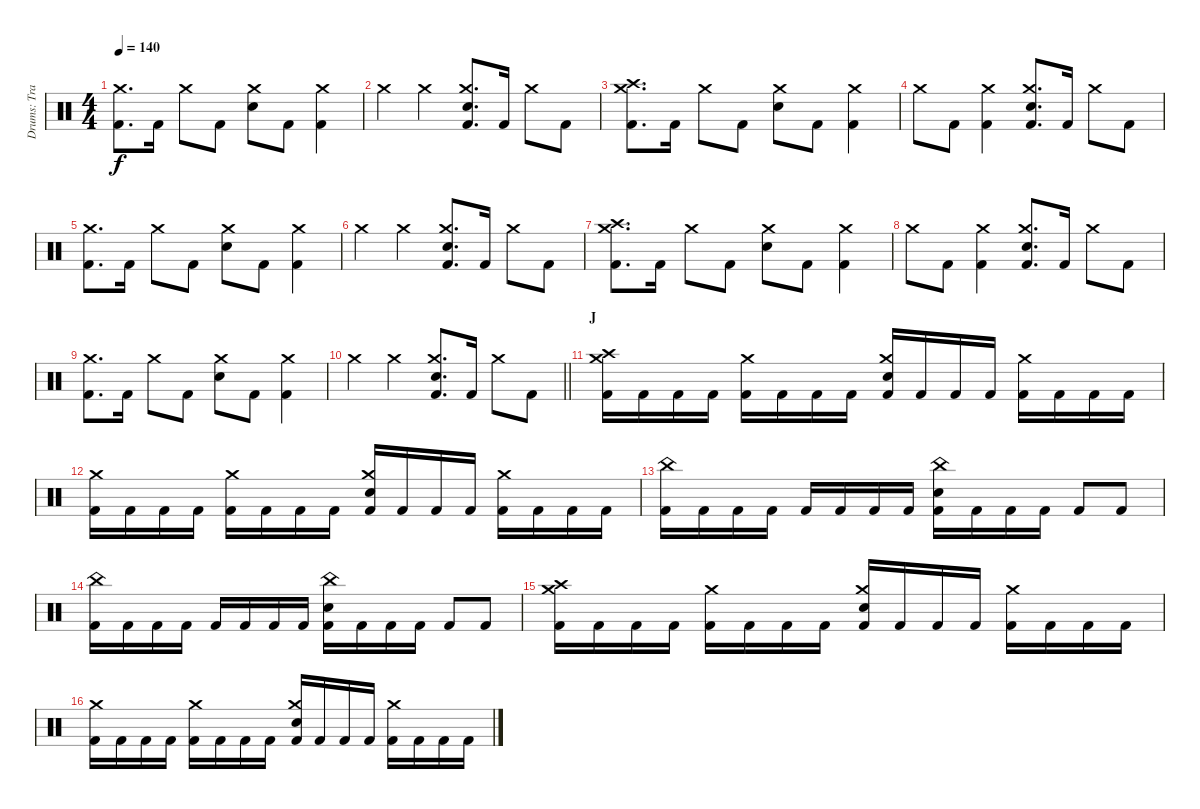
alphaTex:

\track ("Drums: Travis Clarke" "Drums: Tra") {instrument percussion}
\staff {score}
\articulation defaults
\ts (4 4)
\tempo 140
\clef neutral
\ks c
("Kick (hit) 2" "Crash medium (hit)").8{d dy f} "Kick (hit) 2".16 "Crash medium (hit)".8 "Kick (hit) 2".8 ("Snare (hit) 2" "Crash medium (hit)").8 "Kick (hit) 2".8 ("Kick (hit) 2" "Crash medium (hit)").4 |
"Crash medium (hit)".4 "Crash medium (hit)".4 ("Kick (hit) 2" "Snare (hit) 2" "Crash medium (hit)").8{d} "Kick (hit) 2".16 "Crash medium (hit)".8 "Kick (hit) 2".8 |
("Kick (hit) 2" "Crash high (hit)" "Crash medium (hit)").8{d} "Kick (hit) 2".16 "Crash medium (hit)".8 "Kick (hit) 2".8 ("Snare (hit) 2" "Crash medium (hit)").8 "Kick (hit) 2".8 ("Kick (hit) 2" "Crash medium (hit)").4 |
"Crash medium (hit)".8 "Kick (hit) 2".8 ("Kick (hit) 2" "Crash medium (hit)").4 ("Kick (hit) 2" "Snare (hit) 2" "Crash medium (hit)").8{d} "Kick (hit) 2".16 "Crash medium (hit)".8 "Kick (hit) 2".8 |
("Kick (hit) 2" "Crash medium (hit)").8{d} "Kick (hit) 2".16 "Crash medium (hit)".8 "Kick (hit) 2".8 ("Snare (hit) 2" "Crash medium (hit)").8 "Kick (hit) 2".8 ("Kick (hit) 2" "Crash medium (hit)").4 |
"Crash medium (hit)".4 "Crash medium (hit)".4 ("Kick (hit) 2" "Snare (hit) 2" "Crash medium (hit)").8{d} "Kick (hit) 2".16 "Crash medium (hit)".8 "Kick (hit) 2".8 |
("Kick (hit) 2" "Crash high (hit)" "Crash medium (hit)").8{d} "Kick (hit) 2".16 "Crash medium (hit)".8 "Kick (hit) 2".8 ("Snare (hit) 2" "Crash medium (hit)").8 "Kick (hit) 2".8 ("Kick (hit) 2" "Crash medium (hit)").4 |
"Crash medium (hit)".8 "Kick (hit) 2".8 ("Kick (hit) 2" "Crash medium (hit)").4 ("Kick (hit) 2" "Snare (hit) 2" "Crash medium (hit)").8{d} "Kick (hit) 2".16 "Crash medium (hit)".8 "Kick (hit) 2".8 |
("Kick (hit) 2" "Crash medium (hit)").8{d} "Kick (hit) 2".16 "Crash medium (hit)".8 "Kick (hit) 2".8 ("Snare (hit) 2" "Crash medium (hit)").8 "Kick (hit) 2".8 ("Kick (hit) 2" "Crash medium (hit)").4 |
\barLineRight lightlight "Crash medium (hit)".4 "Crash medium (hit)".4
("Kick (hit) 2" "Snare (hit) 2" "Crash medium (hit)").8{d} "Kick (hit) 2".16 "Crash medium (hit)".8 "Kick (hit) 2".8 |
\section ("" "J")
("Kick (hit) 2" "Crash high (hit)" "Crash medium (hit)").16 "Kick (hit) 2".16 "Kick (hit) 2".16 "Kick (hit) 2".16 ("Kick (hit) 2" "Crash medium (hit)").16 "Kick (hit) 2".16 "Kick (hit) 2".16 "Kick (hit) 2".16 ("Kick (hit) 2" "Snare (hit) 2" "Crash medium (hit)").16 "Kick (hit) 2".16 "Kick (hit) 2".16 "Kick (hit) 2".16 ("Kick (hit) 2" "Crash medium (hit)").16 "Kick (hit) 2".16 "Kick (hit) 2".16 "Kick (hit) 2".16 |
("Kick (hit) 2" "Crash medium (hit)").16 "Kick (hit) 2".16 "Kick (hit) 2".16 "Kick (hit) 2".16 ("Kick (hit) 2" "Crash medium (hit)").16 "Kick (hit) 2".16 "Kick (hit) 2".16 "Kick (hit) 2".16 ("Kick (hit) 2" "Snare (hit) 2" "Crash medium (hit)").16 "Kick (hit) 2".16 "Kick (hit) 2".16 "Kick (hit) 2".16 ("Kick (hit) 2" "Crash medium (hit)").16 "Kick (hit) 2".16 "Kick (hit) 2".16 "Kick (hit) 2".16 |
("Kick (hit) 2" "China (hit)").16 "Kick (hit) 2".16 "Kick (hit) 2".16 "Kick (hit) 2".16 "Kick (hit) 2".16 "Kick (hit) 2".16 "Kick (hit) 2".16 "Kick (hit) 2".16 ("Kick (hit) 2" "Snare (hit) 2" "China (hit)").16 "Kick (hit) 2".16 "Kick (hit) 2".16 "Kick (hit) 2".16 "Kick (hit) 2".8 "Kick (hit) 2".8 |
("Kick (hit) 2" "China (hit)").16 "Kick (hit) 2".16 "Kick (hit) 2".16 "Kick (hit) 2".16 "Kick (hit) 2".16 "Kick (hit) 2".16 "Kick (hit) 2".16 "Kick (hit) 2".16 ("Kick (hit) 2" "Snare (hit) 2" "China (hit)").16 "Kick (hit) 2".16 "Kick (hit) 2".16 "Kick (hit) 2".16 "Kick (hit) 2".8 "Kick (hit) 2".8 |
("Kick (hit) 2" "Crash high (hit)" "Crash medium (hit)").16 "Kick (hit) 2".16 "Kick (hit) 2".16 "Kick (hit) 2".16 ("Kick (hit) 2" "Crash medium (hit)").16 "Kick (hit) 2".16 "Kick (hit) 2".16 "Kick (hit) 2".16 ("Kick (hit) 2" "Snare (hit) 2" "Crash medium (hit)").16 "Kick (hit) 2".16 "Kick (hit) 2".16 "Kick (hit) 2".16 ("Kick (hit) 2" "Crash medium (hit)").16 "Kick (hit) 2".16 "Kick (hit) 2".16 "Kick (hit) 2".16 |
("Kick (hit) 2" "Crash medium (hit)").16 "Kick (hit) 2".16 "Kick (hit) 2".16 "Kick (hit) 2".16 ("Kick (hit) 2" "Crash medium (hit)").16 "Kick (hit) 2".16 "Kick (hit) 2".16 "Kick (hit) 2".16 ("Kick (hit) 2" "Snare (hit) 2" "Crash medium (hit)").16 "Kick (hit) 2".16 "Kick (hit) 2".16 "Kick (hit) 2".16 ("Kick (hit) 2" "Crash medium (hit)").16 "Kick (hit) 2".16 "Kick (hit) 2".16 "Kick (hit) 2".16
